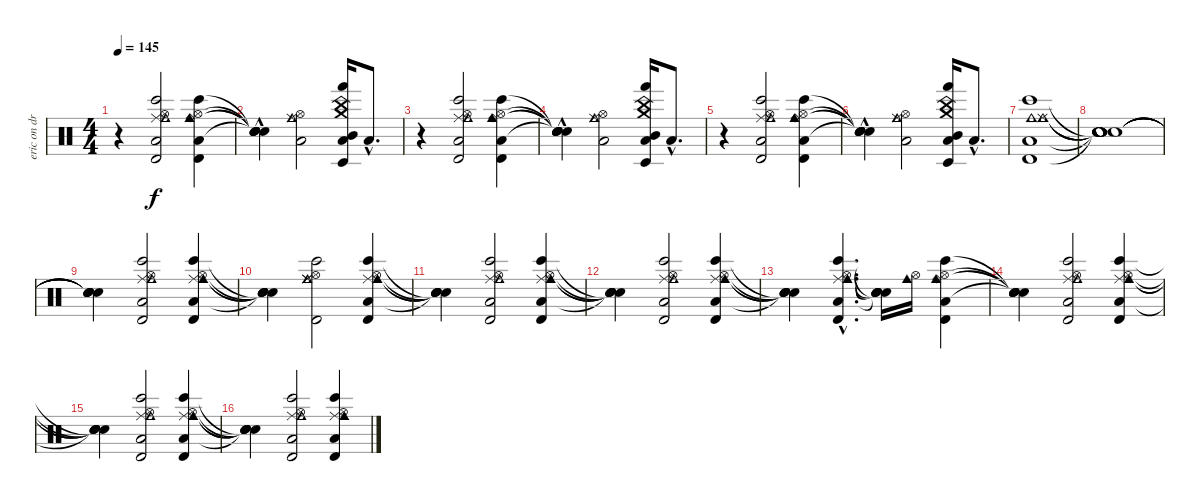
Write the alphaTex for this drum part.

\track ("eric on drums" "eric on dr") {instrument percussion}
\staff {score}
\articulation defaults
\ts (4 4)
\tempo 145
\clef neutral
\ks c
r.4{dy f} ("Low Floor Tom (hit)" "Hi-Hat (open)" "Ride (middle)" "Cowbell medium (hit)" "Bongo High (hit)" "Timbale high (hit)").2 ("Low Floor Tom (hit)" "Hi-Hat (open)" "Ride (bell)" "Cowbell medium (hit)" "Bongo High (hit)" "Timbale high (hit)").4 |
("Snare (hit)"{t} "Snare (hit)"{t} "Snare (hit)"{t} "Snare (hit)"{hac t} "Snare (hit)"{hac t}).4 ("Low Floor Tom (hit)" "Hi-Hat (open)" "Ride (middle)" "Cowbell medium (hit)").2 ("Low Floor Tom (hit)" "Mid Tom (hit)" "China (hit)" "Crash medium (hit)" "Hand (hit)" "Timbale low (hit)").16 "Low Floor Tom (hit)"{hac}.8{d} |
r.4 ("Low Floor Tom (hit)" "Hi-Hat (open)" "Ride (middle)" "Cowbell medium (hit)" "Bongo High (hit)" "Timbale high (hit)").2 ("Low Floor Tom (hit)" "Hi-Hat (open)" "Ride (bell)" "Cowbell medium (hit)" "Bongo High (hit)" "Timbale high (hit)").4 |
("Snare (hit)"{t} "Snare (hit)"{t} "Snare (hit)"{t} "Snare (hit)"{hac t} "Snare (hit)"{hac t}).4 ("Low Floor Tom (hit)" "Hi-Hat (open)" "Ride (middle)" "Cowbell medium (hit)").2 ("Low Floor Tom (hit)" "Mid Tom (hit)" "China (hit)" "Crash medium (hit)" "Hand (hit)" "Timbale low (hit)").16 "Low Floor Tom (hit)"{hac}.8{d} |
r.4 ("Low Floor Tom (hit)" "Hi-Hat (open)" "Ride (middle)" "Cowbell medium (hit)" "Bongo High (hit)" "Timbale high (hit)").2 ("Low Floor Tom (hit)" "Hi-Hat (open)" "Ride (bell)" "Cowbell medium (hit)" "Bongo High (hit)" "Timbale high (hit)").4 |
("Snare (hit)"{t} "Snare (hit)"{t} "Snare (hit)"{t} "Snare (hit)"{hac t} "Snare (hit)"{hac t}).4 ("Low Floor Tom (hit)" "Hi-Hat (open)" "Ride (middle)" "Cowbell medium (hit)").2 ("Low Floor Tom (hit)" "Mid Tom (hit)" "China (hit)" "Crash medium (hit)" "Hand (hit)" "Timbale low (hit)").16 "Low Floor Tom (hit)"{hac}.8{d} |
("Low Floor Tom (hit)" "Cowbell medium (hit)" "Ride (middle)" "Cowbell medium (hit)" "Bongo High (hit)" "Timbale high (hit)").1 |
("Snare (hit)"{t} "Snare (hit)"{t} "Snare (hit)"{t} "Snare (hit)"{t} "Snare (hit)"{t} "Snare (hit)"{t}).1 |
("Snare (hit)"{t} "Snare (hit)"{t} "Snare (hit)"{t} "Snare (hit)"{t} "Snare (hit)"{t}).4 ("Low Floor Tom (hit)" "Hi-Hat (open)" "Ride (middle)" "Cowbell medium (hit)" "Bongo High (hit)" "Timbale high (hit)").2 ("Low Floor Tom (hit)" "Hi-Hat (open)" "Ride (middle)" "Cowbell medium (hit)" "Bongo High (hit)" "Timbale high (hit)").4 |
("Snare (hit)"{t} "Snare (hit)"{t} "Snare (hit)"{t} "Snare (hit)"{t} "Snare (hit)"{t}).4 ("Ride (middle)" "Hi-Hat (open)" "Ride (middle)" "Cowbell medium (hit)" "Bongo High (hit)" "Timbale high (hit)").2 ("Low Floor Tom (hit)" "Hi-Hat (open)" "Ride (middle)" "Cowbell medium (hit)" "Bongo High (hit)" "Timbale high (hit)").4 |
("Snare (hit)"{t} "Snare (hit)"{t} "Snare (hit)"{t} "Snare (hit)"{t} "Snare (hit)"{t}).4 ("Low Floor Tom (hit)" "Hi-Hat (open)" "Ride (middle)" "Cowbell medium (hit)" "Bongo High (hit)" "Timbale high (hit)").2 ("Low Floor Tom (hit)" "Hi-Hat (open)" "Ride (middle)" "Cowbell medium (hit)" "Bongo High (hit)" "Timbale high (hit)").4 |
("Snare (hit)"{t} "Snare (hit)"{t} "Snare (hit)"{t} "Snare (hit)"{t} "Snare (hit)"{t}).4 ("Low Floor Tom (hit)" "Hi-Hat (open)" "Ride (middle)" "Cowbell medium (hit)" "Bongo High (hit)" "Timbale high (hit)").2 ("Low Floor Tom (hit)" "Hi-Hat (open)" "Ride (middle)" "Cowbell medium (hit)" "Bongo High (hit)" "Timbale high (hit)").4 |
("Snare (hit)"{t} "Snare (hit)"{t} "Snare (hit)"{t} "Snare (hit)"{t} "Snare (hit)"{t}).4 ("Low Floor Tom (hit)" "Hi-Hat (open)"{hac} "Ride (middle)"{hac} "Cowbell medium (hit)"{hac} "Bongo High (hit)"{hac} "Timbale high (hit)"{hac}).4{d} ("Snare (hit)"{t} "Snare (hit)"{t} "Snare (hit)"{t} "Snare (hit)"{t} "Snare (hit)"{t}).16 ("Hi-Hat (open)" "Cowbell medium (hit)").16 ("Low Floor Tom (hit)" "Hi-Hat (open)" "Ride (bell)" "Cowbell medium (hit)" "Bongo High (hit)" "Timbale high (hit)").4 |
("Snare (hit)"{t} "Snare (hit)"{t} "Snare (hit)"{t} "Snare (hit)"{t} "Snare (hit)"{t}).4 ("Low Floor Tom (hit)" "Hi-Hat (open)" "Ride (middle)" "Cowbell medium (hit)" "Bongo High (hit)" "Timbale high (hit)").2 ("Low Floor Tom (hit)" "Hi-Hat (open)" "Ride (middle)" "Cowbell medium (hit)" "Bongo High (hit)" "Timbale high (hit)").4 |
("Snare (hit)"{t} "Snare (hit)"{t} "Snare (hit)"{t} "Snare (hit)"{t} "Snare (hit)"{t}).4 ("Low Floor Tom (hit)" "Hi-Hat (open)" "Ride (middle)" "Cowbell medium (hit)" "Bongo High (hit)" "Timbale high (hit)").2 ("Low Floor Tom (hit)" "Hi-Hat (open)" "Ride (middle)" "Cowbell medium (hit)" "Bongo High (hit)" "Timbale high (hit)").4 |
("Snare (hit)"{t} "Snare (hit)"{t} "Snare (hit)"{t} "Snare (hit)"{t} "Snare (hit)"{t}).4 ("Low Floor Tom (hit)" "Hi-Hat (open)" "Ride (middle)" "Cowbell medium (hit)" "Bongo High (hit)" "Timbale high (hit)").2 ("Low Floor Tom (hit)" "Hi-Hat (open)" "Ride (middle)" "Cowbell medium (hit)" "Bongo High (hit)" "Timbale high (hit)").4
